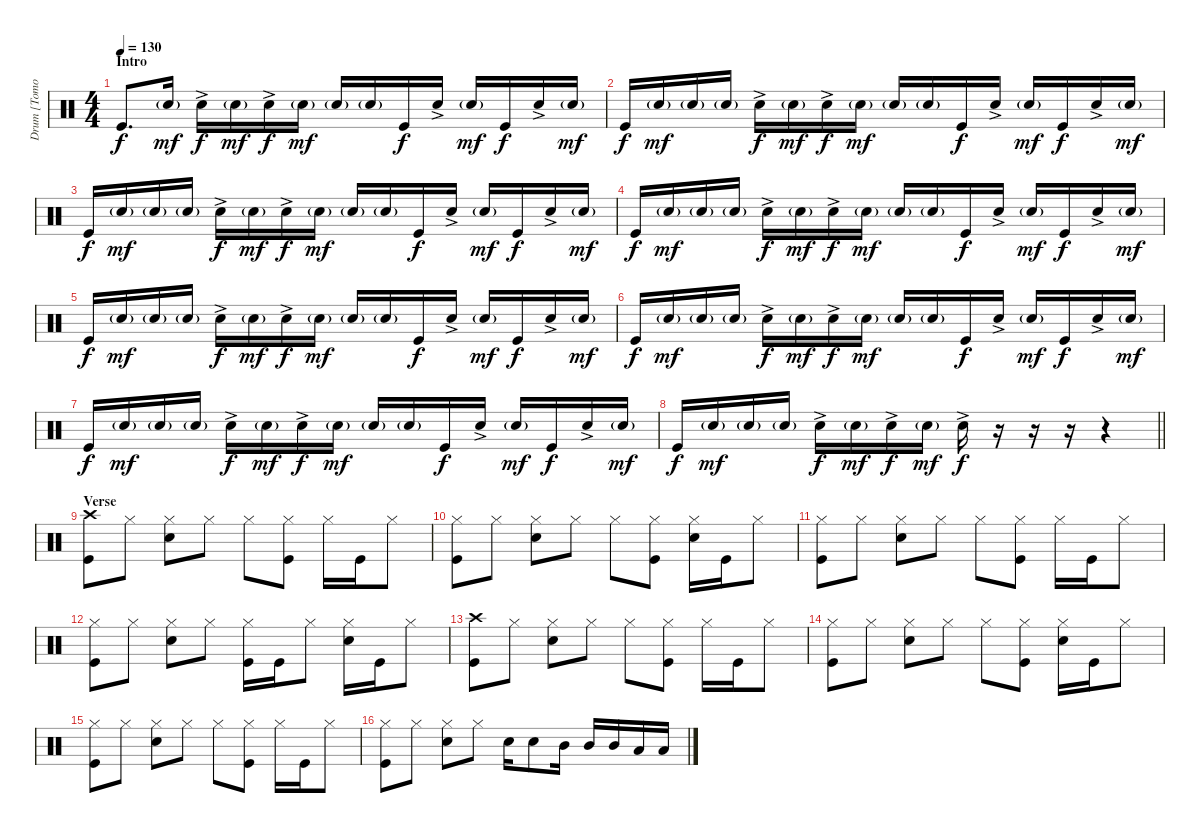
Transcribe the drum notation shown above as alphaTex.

\track ("Drum [Tomoya]" "Drum [Tomo") {instrument percussion}
\staff {score}
\articulation defaults
\ts (4 4)
\section ("" "Intro")
\tempo 130
\clef neutral
\ks c "Kick (hit)".8{d dy f} "Snare (hit) 2"{g}.16{dy mf} "Snare (hit) 2"{ac}.16{dy f} "Snare (hit) 2"{g}.16{dy mf} "Snare (hit) 2"{ac}.16{dy f} "Snare (hit) 2"{g}.16{dy mf} "Snare (hit) 2"{g}.16 "Snare (hit) 2"{g}.16 "Kick (hit)".16{dy f} "Snare (hit) 2"{ac}.16 "Snare (hit) 2"{g}.16{dy mf} "Kick (hit)".16{dy f} "Snare (hit) 2"{ac}.16 "Snare (hit) 2"{g}.16{dy mf}
|
"Kick (hit)".16{dy f} "Snare (hit) 2"{g}.16{dy mf} "Snare (hit) 2"{g}.16 "Snare (hit) 2"{g}.16 "Snare (hit) 2"{ac}.16{dy f} "Snare (hit) 2"{g}.16{dy mf} "Snare (hit) 2"{ac}.16{dy f} "Snare (hit) 2"{g}.16{dy mf} "Snare (hit) 2"{g}.16 "Snare (hit) 2"{g}.16 "Kick (hit)".16{dy f} "Snare (hit) 2"{ac}.16 "Snare (hit) 2"{g}.16{dy mf} "Kick (hit)".16{dy f} "Snare (hit) 2"{ac}.16 "Snare (hit) 2"{g}.16{dy mf} |
"Kick (hit)".16{dy f} "Snare (hit) 2"{g}.16{dy mf} "Snare (hit) 2"{g}.16 "Snare (hit) 2"{g}.16 "Snare (hit) 2"{ac}.16{dy f} "Snare (hit) 2"{g}.16{dy mf} "Snare (hit) 2"{ac}.16{dy f} "Snare (hit) 2"{g}.16{dy mf} "Snare (hit) 2"{g}.16 "Snare (hit) 2"{g}.16 "Kick (hit)".16{dy f} "Snare (hit) 2"{ac}.16 "Snare (hit) 2"{g}.16{dy mf} "Kick (hit)".16{dy f} "Snare (hit) 2"{ac}.16 "Snare (hit) 2"{g}.16{dy mf} |
"Kick (hit)".16{dy f} "Snare (hit) 2"{g}.16{dy mf} "Snare (hit) 2"{g}.16 "Snare (hit) 2"{g}.16 "Snare (hit) 2"{ac}.16{dy f} "Snare (hit) 2"{g}.16{dy mf} "Snare (hit) 2"{ac}.16{dy f} "Snare (hit) 2"{g}.16{dy mf} "Snare (hit) 2"{g}.16 "Snare (hit) 2"{g}.16 "Kick (hit)".16{dy f} "Snare (hit) 2"{ac}.16 "Snare (hit) 2"{g}.16{dy mf} "Kick (hit)".16{dy f} "Snare (hit) 2"{ac}.16 "Snare (hit) 2"{g}.16{dy mf} |
"Kick (hit)".16{dy f} "Snare (hit) 2"{g}.16{dy mf} "Snare (hit) 2"{g}.16 "Snare (hit) 2"{g}.16 "Snare (hit) 2"{ac}.16{dy f} "Snare (hit) 2"{g}.16{dy mf} "Snare (hit) 2"{ac}.16{dy f} "Snare (hit) 2"{g}.16{dy mf} "Snare (hit) 2"{g}.16 "Snare (hit) 2"{g}.16 "Kick (hit)".16{dy f} "Snare (hit) 2"{ac}.16 "Snare (hit) 2"{g}.16{dy mf} "Kick (hit)".16{dy f} "Snare (hit) 2"{ac}.16 "Snare (hit) 2"{g}.16{dy mf} |
"Kick (hit)".16{dy f} "Snare (hit) 2"{g}.16{dy mf} "Snare (hit) 2"{g}.16 "Snare (hit) 2"{g}.16 "Snare (hit) 2"{ac}.16{dy f} "Snare (hit) 2"{g}.16{dy mf} "Snare (hit) 2"{ac}.16{dy f} "Snare (hit) 2"{g}.16{dy mf} "Snare (hit) 2"{g}.16 "Snare (hit) 2"{g}.16 "Kick (hit)".16{dy f} "Snare (hit) 2"{ac}.16 "Snare (hit) 2"{g}.16{dy mf} "Kick (hit)".16{dy f} "Snare (hit) 2"{ac}.16 "Snare (hit) 2"{g}.16{dy mf} |
"Kick (hit)".16{dy f} "Snare (hit) 2"{g}.16{dy mf} "Snare (hit) 2"{g}.16 "Snare (hit) 2"{g}.16 "Snare (hit) 2"{ac}.16{dy f} "Snare (hit) 2"{g}.16{dy mf} "Snare (hit) 2"{ac}.16{dy f} "Snare (hit) 2"{g}.16{dy mf} "Snare (hit) 2"{g}.16 "Snare (hit) 2"{g}.16 "Kick (hit)".16{dy f} "Snare (hit) 2"{ac}.16 "Snare (hit) 2"{g}.16{dy mf} "Kick (hit)".16{dy f} "Snare (hit) 2"{ac}.16 "Snare (hit) 2"{g}.16{dy mf} |
\barLineRight lightlight "Kick (hit)".16{dy f} "Snare (hit) 2"{g}.16{dy mf} "Snare (hit) 2"{g}.16 "Snare (hit) 2"{g}.16 "Snare (hit) 2"{ac}.16{dy f} "Snare (hit) 2"{g}.16{dy mf} "Snare (hit) 2"{ac}.16{dy f} "Snare (hit) 2"{g}.16{dy mf} "Snare (hit) 2"{ac}.16{dy f}
r.16 r.16 r.16 r.4 |
\section ("" "Verse")
("Crash high (hit)" "Kick (hit)").8 "Hi-Hat (closed)".8 ("Hi-Hat (closed)" "Snare (hit) 2").8 "Hi-Hat (closed)".8 "Hi-Hat (closed)".8 ("Hi-Hat (closed)" "Kick (hit)").8 "Hi-Hat (closed)".16 "Kick (hit)".16 "Hi-Hat (closed)".8 |
("Hi-Hat (closed)" "Kick (hit)").8 "Hi-Hat (closed)".8 ("Hi-Hat (closed)" "Snare (hit) 2").8 "Hi-Hat (closed)".8 "Hi-Hat (closed)".8 ("Hi-Hat (closed)" "Kick (hit)").8 ("Hi-Hat (closed)" "Snare (hit) 2").16 "Kick (hit)".16 "Hi-Hat (closed)".8 |
("Hi-Hat (closed)" "Kick (hit)").8 "Hi-Hat (closed)".8 ("Hi-Hat (closed)" "Snare (hit) 2").8 "Hi-Hat (closed)".8 "Hi-Hat (closed)".8 ("Hi-Hat (closed)" "Kick (hit)").8 "Hi-Hat (closed)".16 "Kick (hit)".16 "Hi-Hat (closed)".8 |
("Hi-Hat (closed)" "Kick (hit)").8 "Hi-Hat (closed)".8 ("Hi-Hat (closed)" "Snare (hit) 2").8 "Hi-Hat (closed)".8 ("Hi-Hat (closed)" "Kick (hit)").16 "Kick (hit)".16 "Hi-Hat (closed)".8 ("Hi-Hat (closed)" "Snare (hit) 2").16 "Kick (hit)".16 "Hi-Hat (closed)".8 |
("Crash high (hit)" "Kick (hit)").8 "Hi-Hat (closed)".8 ("Hi-Hat (closed)" "Snare (hit) 2").8 "Hi-Hat (closed)".8 "Hi-Hat (closed)".8 ("Hi-Hat (closed)" "Kick (hit)").8 "Hi-Hat (closed)".16 "Kick (hit)".16 "Hi-Hat (closed)".8 |
("Hi-Hat (closed)" "Kick (hit)").8 "Hi-Hat (closed)".8 ("Hi-Hat (closed)" "Snare (hit) 2").8 "Hi-Hat (closed)".8 "Hi-Hat (closed)".8 ("Hi-Hat (closed)" "Kick (hit)").8 ("Hi-Hat (closed)" "Snare (hit) 2").16 "Kick (hit)".16 "Hi-Hat (closed)".8 |
("Hi-Hat (closed)" "Kick (hit)").8 "Hi-Hat (closed)".8 ("Hi-Hat (closed)" "Snare (hit) 2").8 "Hi-Hat (closed)".8 "Hi-Hat (closed)".8 ("Hi-Hat (closed)" "Kick (hit)").8 "Hi-Hat (closed)".16 "Kick (hit)".16 "Hi-Hat (closed)".8 |
("Hi-Hat (closed)" "Kick (hit)").8 "Hi-Hat (closed)".8 ("Hi-Hat (closed)" "Snare (hit) 2").8 "Hi-Hat (closed)".8 "Snare (hit) 2".16 "Snare (hit) 2".8 "Mid Tom (hit)".16 "Mid Tom (hit)".16 "Mid Tom (hit)".16 "Low Tom (hit)".16 "Low Tom (hit)".16
